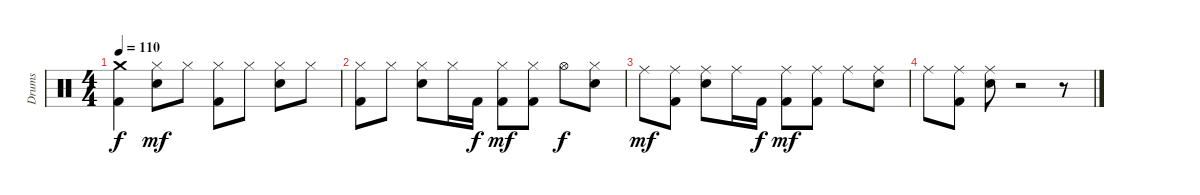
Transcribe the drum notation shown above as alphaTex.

\track ("Drums" "Drums") {instrument percussion}
\staff {score}
\articulation defaults
\ts (4 4)
\tempo 110
\clef neutral
\ks c
("Crash medium (hit)" "Kick (hit) 2").4{dy f volume 0} ("Hi-Hat (closed)" "Electric Snare (hit)").8{dy mf} "Hi-Hat (closed)".8 ("Hi-Hat (closed)" "Kick (hit) 2").8 "Hi-Hat (closed)".8 ("Hi-Hat (closed)" "Electric Snare (hit)").8 "Hi-Hat (closed)".8 |
("Hi-Hat (closed)" "Kick (hit) 2").8 "Hi-Hat (closed)".8 ("Hi-Hat (closed)" "Electric Snare (hit)").8 "Hi-Hat (closed)".16 "Kick (hit) 2".16{dy f} ("Hi-Hat (closed)" "Kick (hit) 2").8{dy mf} ("Hi-Hat (closed)" "Kick (hit) 2").8 "Hi-Hat (open)".8{dy f} ("Hi-Hat (closed)" "Electric Snare (hit)").8 |
"Ride (middle)".8{dy mf} ("Ride (middle)" "Kick (hit) 2").8 ("Ride (middle)" "Electric Snare (hit)").8 "Ride (middle)".16 "Kick (hit) 2".16{dy f} ("Ride (middle)" "Kick (hit) 2").8{dy mf} ("Ride (middle)" "Kick (hit) 2").8 "Ride (middle)".8 ("Ride (middle)" "Electric Snare (hit)").8 |
"Ride (middle)".8 ("Ride (middle)" "Kick (hit) 2").8 ("Ride (middle)" "Electric Snare (hit)").8 r.2 r.8
